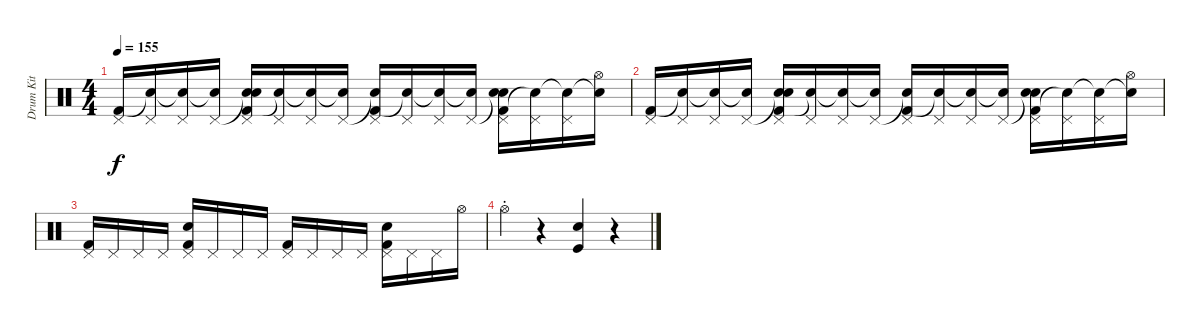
\track ("Drum Kit" "Drum Kit") {instrument percussion}
\staff {score}
\articulation defaults
\ts (4 4)
\tempo 155
\clef neutral
\ks c
("Kick (hit) 2" "Pedal Hi-Hat (hit)").16{dy f} ("Snare (hit)"{t} "Pedal Hi-Hat (hit)").16 ("Snare (hit)"{t} "Pedal Hi-Hat (hit)").16 ("Snare (hit)"{t} "Pedal Hi-Hat (hit)").16 ("Kick (hit) 2" "Snare (hit)"{t} "Electric Snare (hit)" "Pedal Hi-Hat (hit)").16 ("Snare (hit)"{t} "Pedal Hi-Hat (hit)").16 ("Snare (hit)"{t} "Pedal Hi-Hat (hit)").16 ("Snare (hit)"{t} "Pedal Hi-Hat (hit)").16 ("Kick (hit) 2" "Snare (hit)"{t} "Pedal Hi-Hat (hit)").16 ("Snare (hit)"{t} "Pedal Hi-Hat (hit)").16 ("Snare (hit)"{t} "Pedal Hi-Hat (hit)").16 ("Snare (hit)"{t} "Pedal Hi-Hat (hit)").16 ("Kick (hit) 2" "Snare (hit)"{t} "Electric Snare (hit)" "Pedal Hi-Hat (hit)").16 ("Snare (hit)"{t} "Pedal Hi-Hat (hit)").16 ("Snare (hit)"{t} "Pedal Hi-Hat (hit)").16 ("Snare (hit)"{t} "Hi-Hat (open)").16 |
("Kick (hit) 2" "Pedal Hi-Hat (hit)").16 ("Snare (hit)"{t} "Pedal Hi-Hat (hit)").16 ("Snare (hit)"{t} "Pedal Hi-Hat (hit)").16 ("Snare (hit)"{t} "Pedal Hi-Hat (hit)").16 ("Kick (hit) 2" "Snare (hit)"{t} "Electric Snare (hit)" "Pedal Hi-Hat (hit)").16 ("Snare (hit)"{t} "Pedal Hi-Hat (hit)").16 ("Snare (hit)"{t} "Pedal Hi-Hat (hit)").16 ("Snare (hit)"{t} "Pedal Hi-Hat (hit)").16 ("Kick (hit) 2" "Snare (hit)"{t} "Pedal Hi-Hat (hit)").16 ("Snare (hit)"{t} "Pedal Hi-Hat (hit)").16 ("Snare (hit)"{t} "Pedal Hi-Hat (hit)").16 ("Snare (hit)"{t} "Pedal Hi-Hat (hit)").16 ("Kick (hit) 2" "Snare (hit)"{t} "Electric Snare (hit)" "Pedal Hi-Hat (hit)").16 ("Snare (hit)"{t} "Pedal Hi-Hat (hit)").16 ("Snare (hit)"{t} "Pedal Hi-Hat (hit)").16 ("Snare (hit)"{t} "Hi-Hat (open)").16 |
("Kick (hit) 2" "Pedal Hi-Hat (hit)").16 "Pedal Hi-Hat (hit)".16 "Pedal Hi-Hat (hit)".16 "Pedal Hi-Hat (hit)".16 ("Kick (hit) 2" "Electric Snare (hit)" "Pedal Hi-Hat (hit)").16 "Pedal Hi-Hat (hit)".16 "Pedal Hi-Hat (hit)".16 "Pedal Hi-Hat (hit)".16 ("Kick (hit) 2" "Pedal Hi-Hat (hit)").16 "Pedal Hi-Hat (hit)".16 "Pedal Hi-Hat (hit)".16 "Pedal Hi-Hat (hit)".16 ("Kick (hit) 2" "Electric Snare (hit)" "Pedal Hi-Hat (hit)").16 "Pedal Hi-Hat (hit)".16 "Pedal Hi-Hat (hit)".16 "Hi-Hat (open)".16 |
"Hi-Hat (open)"{st}.4 r.4 ("Electric Snare (hit)" "Kick (hit)").4 r.4
